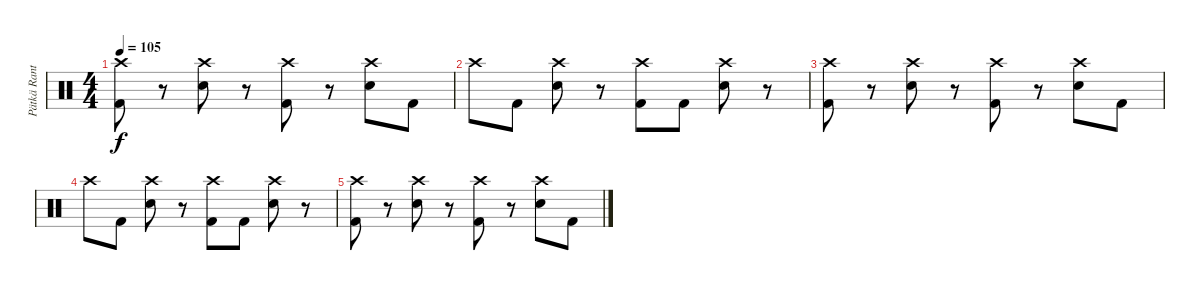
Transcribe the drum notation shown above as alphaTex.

\track ("Pätkä Rantala (Drums)" "Pätkä Rant") {instrument percussion}
\staff {score}
\articulation defaults
\ts (4 4)
\tempo 105
\clef neutral
\ks c
("Crash high (hit)" "Kick (hit) 2").8{dy f} r.8 ("Crash high (hit)" "Snare (hit) 2").8 r.8 ("Crash high (hit)" "Kick (hit) 2").8 r.8 ("Crash high (hit)" "Snare (hit) 2").8 "Kick (hit) 2".8 |
"Crash high (hit)".8 "Kick (hit) 2".8 ("Crash high (hit)" "Snare (hit) 2").8 r.8 ("Crash high (hit)" "Kick (hit) 2").8 "Kick (hit) 2".8 ("Crash high (hit)" "Snare (hit) 2").8 r.8 |
("Crash high (hit)" "Kick (hit) 2").8{volume 0} r.8 ("Crash high (hit)" "Snare (hit) 2").8 r.8 ("Crash high (hit)" "Kick (hit) 2").8 r.8 ("Crash high (hit)" "Snare (hit) 2").8 "Kick (hit) 2".8 |
"Crash high (hit)".8 "Kick (hit) 2".8 ("Crash high (hit)" "Snare (hit) 2").8 r.8 ("Crash high (hit)" "Kick (hit) 2").8 "Kick (hit) 2".8 ("Crash high (hit)" "Snare (hit) 2").8 r.8 |
("Crash high (hit)" "Kick (hit) 2").8 r.8 ("Crash high (hit)" "Snare (hit) 2").8 r.8 ("Crash high (hit)" "Kick (hit) 2").8 r.8 ("Crash high (hit)" "Snare (hit) 2").8 "Kick (hit) 2".8
